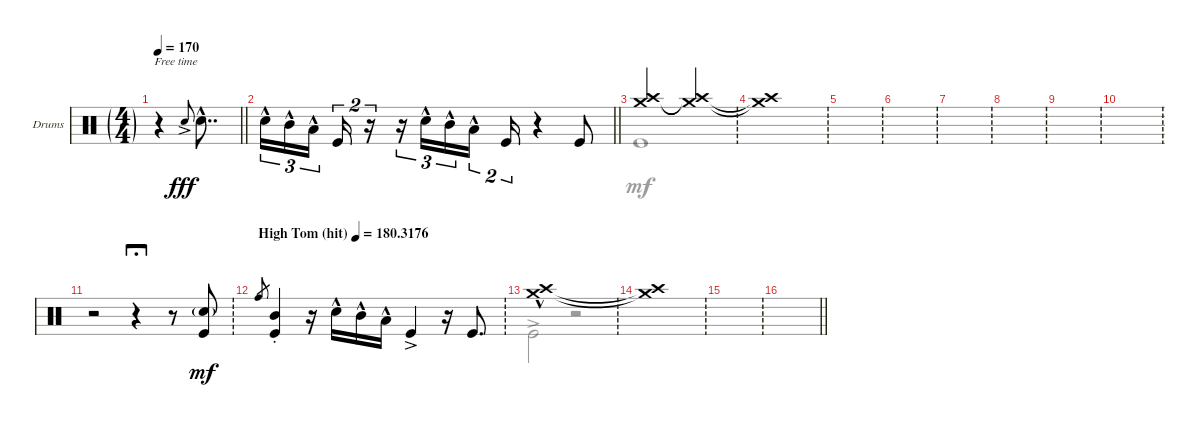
\defaultSystemsLayout 4
\bracketExtendMode groupsimilarinstruments
\firstSystemTrackNameOrientation horizontal
\otherSystemsTrackNameOrientation horizontal
\track ("Drumkit" "Drums") {instrument percussion}
\staff {score}
\articulation defaults
\voice
\ts (4 4)
\ft
\ac
\tempo 170
\clef neutral
\barLineRight lightlight
\ks c
r.4{dy fff} "Snare (hit) 2"{ac}.8{gr onbeat} "Snare (hit) 2"{hac}.8{dd} |
\ft
\barLineRight lightlight "Snare (hit) 2"{hac}.16{tu (3 2)} "Mid Tom (hit)"{hac}.16{tu (3 2)} "Low Tom (hit)"{hac}.16{tu (3 2)} "Kick (hit)".16{tu (2 3)}
r.16{tu (2 3)} r.16{tu (3 2)} "Snare (hit) 2"{hac}.16{tu (3 2) beam merge} "Mid Tom (hit)"{hac}.16{tu (3 2) beam merge} "Low Tom (hit)"{hac}.16{tu (2 3) beam split} "Kick (hit)".16{tu (2 3)} r.4 "Kick (hit)".8 |
\ft
("Crash medium (hit)" "Crash high (hit)").2 ("Crash high (hit)"{t} "Crash medium (hit)"{t}).2 |
\ft
("Crash high (hit)"{t} "Crash medium (hit)"{t}).1 |
\ft
|
\ft
|
\ft
|
\ft
|
\ft
|
\ft
|
\ft
r.2 r.4{fermata (long 1)} r.8 ("Snare (hit) 2"{g} "Kick (hit)").8{dy mf} |
\ft
\tempo
180.3176 "High Tom (hit)".8{gr} ("Mid Tom (hit)" "Kick (hit)"{st}).4 r.16 "Snare (hit) 2"{hac}.16 "Mid Tom (hit)"{hac}.16 "Low Tom (hit)"{hac}.16 "Kick (hit)"{ac}.4 r.16 "Kick (hit)".8{d} |
\ft
("Crash medium (hit)"{hac} "Crash high (hit)"{hac}).1 |
\ft
("Crash medium (hit)"{t} "Crash high (hit)"{t}).1 |
\ft
|
\ft
\voice
\clef neutral
\ottava regular
\simile none
\barLineRight lightlight
\ks c
|
\barLineRight lightlight
|
"Kick (hit)".1 |
|
|
|
|
|
|
|
|
|
"Kick (hit)"{ac}.2 r.2 |
|
|
